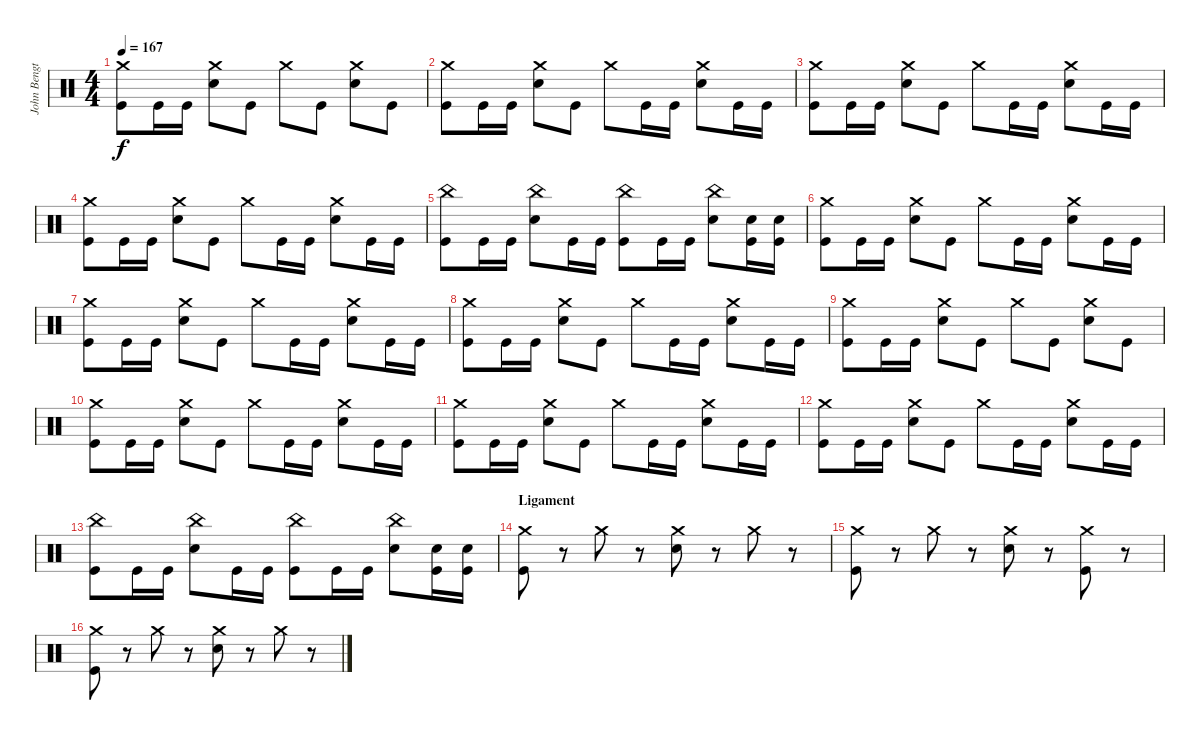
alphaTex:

\track ("John Bengtsson" "John Bengt") {instrument percussion}
\staff {score}
\articulation defaults
\ts (4 4)
\tempo 167
\clef neutral
\ks c
("Crash medium (hit)" "Kick (hit)").8{dy f} "Kick (hit)".16 "Kick (hit)".16 ("Crash medium (hit)" "Snare (hit) 2").8 "Kick (hit)".8 "Crash medium (hit)".8 "Kick (hit)".8 ("Crash medium (hit)" "Snare (hit) 2").8 "Kick (hit)".8 |
("Crash medium (hit)" "Kick (hit)").8 "Kick (hit)".16 "Kick (hit)".16 ("Crash medium (hit)" "Snare (hit) 2").8 "Kick (hit)".8 "Crash medium (hit)".8 "Kick (hit)".16 "Kick (hit)".16 ("Crash medium (hit)" "Snare (hit) 2").8 "Kick (hit)".16 "Kick (hit)".16 |
("Crash medium (hit)" "Kick (hit)").8 "Kick (hit)".16 "Kick (hit)".16 ("Crash medium (hit)" "Snare (hit) 2").8 "Kick (hit)".8 "Crash medium (hit)".8 "Kick (hit)".16 "Kick (hit)".16 ("Crash medium (hit)" "Snare (hit) 2").8 "Kick (hit)".16 "Kick (hit)".16 |
("Crash medium (hit)" "Kick (hit)").8 "Kick (hit)".16 "Kick (hit)".16 ("Crash medium (hit)" "Snare (hit) 2").8 "Kick (hit)".8 "Crash medium (hit)".8 "Kick (hit)".16 "Kick (hit)".16 ("Crash medium (hit)" "Snare (hit) 2").8 "Kick (hit)".16 "Kick (hit)".16 |
("China (hit)" "Kick (hit)").8 "Kick (hit)".16 "Kick (hit)".16 ("China (hit)" "Snare (hit) 2").8 "Kick (hit)".16 "Kick (hit)".16 ("China (hit)" "Kick (hit)").8 "Kick (hit)".16 "Kick (hit)".16 ("China (hit)" "Snare (hit) 2").8 ("Snare (hit) 2" "Kick (hit)").16 ("Snare (hit) 2" "Kick (hit)").16 |
("Crash medium (hit)" "Kick (hit)").8 "Kick (hit)".16 "Kick (hit)".16 ("Crash medium (hit)" "Snare (hit) 2").8 "Kick (hit)".8 "Crash medium (hit)".8 "Kick (hit)".16 "Kick (hit)".16 ("Crash medium (hit)" "Snare (hit) 2").8 "Kick (hit)".16 "Kick (hit)".16 |
("Crash medium (hit)" "Kick (hit)").8 "Kick (hit)".16 "Kick (hit)".16 ("Crash medium (hit)" "Snare (hit) 2").8 "Kick (hit)".8 "Crash medium (hit)".8 "Kick (hit)".16 "Kick (hit)".16 ("Crash medium (hit)" "Snare (hit) 2").8 "Kick (hit)".16 "Kick (hit)".16 |
("Crash medium (hit)" "Kick (hit)").8 "Kick (hit)".16 "Kick (hit)".16 ("Crash medium (hit)" "Snare (hit) 2").8 "Kick (hit)".8 "Crash medium (hit)".8 "Kick (hit)".16 "Kick (hit)".16 ("Crash medium (hit)" "Snare (hit) 2").8 "Kick (hit)".16 "Kick (hit)".16 |
("Crash medium (hit)" "Kick (hit)").8 "Kick (hit)".16 "Kick (hit)".16 ("Crash medium (hit)" "Snare (hit) 2").8 "Kick (hit)".8 "Crash medium (hit)".8 "Kick (hit)".8 ("Crash medium (hit)" "Snare (hit) 2").8 "Kick (hit)".8 |
("Crash medium (hit)" "Kick (hit)").8 "Kick (hit)".16 "Kick (hit)".16 ("Crash medium (hit)" "Snare (hit) 2").8 "Kick (hit)".8 "Crash medium (hit)".8 "Kick (hit)".16 "Kick (hit)".16 ("Crash medium (hit)" "Snare (hit) 2").8 "Kick (hit)".16 "Kick (hit)".16 |
("Crash medium (hit)" "Kick (hit)").8 "Kick (hit)".16 "Kick (hit)".16 ("Crash medium (hit)" "Snare (hit) 2").8 "Kick (hit)".8 "Crash medium (hit)".8 "Kick (hit)".16 "Kick (hit)".16 ("Crash medium (hit)" "Snare (hit) 2").8 "Kick (hit)".16 "Kick (hit)".16 |
("Crash medium (hit)" "Kick (hit)").8 "Kick (hit)".16 "Kick (hit)".16 ("Crash medium (hit)" "Snare (hit) 2").8 "Kick (hit)".8 "Crash medium (hit)".8 "Kick (hit)".16 "Kick (hit)".16 ("Crash medium (hit)" "Snare (hit) 2").8 "Kick (hit)".16 "Kick (hit)".16 |
("China (hit)" "Kick (hit)").8 "Kick (hit)".16 "Kick (hit)".16 ("China (hit)" "Snare (hit) 2").8 "Kick (hit)".16 "Kick (hit)".16 ("China (hit)" "Kick (hit)").8 "Kick (hit)".16 "Kick (hit)".16 ("China (hit)" "Snare (hit) 2").8 ("Snare (hit) 2" "Kick (hit)").16 ("Snare (hit) 2" "Kick (hit)").16 |
\section ("" "Ligament")
("Crash medium (hit)" "Kick (hit)").8 r.8 "Crash medium (hit)".8 r.8 ("Crash medium (hit)" "Snare (hit) 2").8 r.8 "Crash medium (hit)".8 r.8 |
("Crash medium (hit)" "Kick (hit)").8 r.8 "Crash medium (hit)".8 r.8 ("Crash medium (hit)" "Snare (hit) 2").8 r.8 ("Crash medium (hit)" "Kick (hit)").8 r.8 |
("Crash medium (hit)" "Kick (hit)").8 r.8 "Crash medium (hit)".8 r.8 ("Crash medium (hit)" "Snare (hit) 2").8 r.8 "Crash medium (hit)".8 r.8
